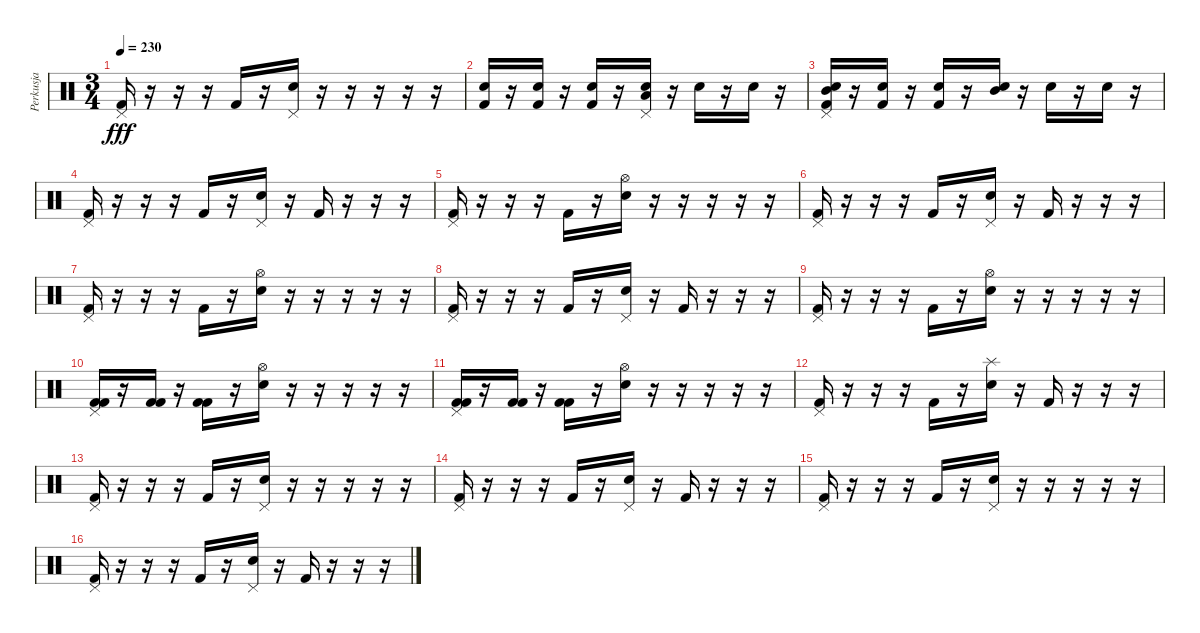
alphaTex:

\track ("Perkusja" "Perkusja") {instrument percussion}
\staff {score}
\articulation defaults
\ts (3 4)
\tempo 230
\clef neutral
\ks c
("Pedal Hi-Hat (hit)" "Kick (hit) 2").16{dy fff} r.16 r.16 r.16 "Kick (hit) 2".16 r.16 ("Snare (hit) 2" "Pedal Hi-Hat (hit)").16 r.16 r.16 r.16 r.16 r.16 |
("Snare (hit) 2" "Kick (hit) 2").16 r.16 ("Snare (hit) 2" "Kick (hit) 2").16 r.16 ("Snare (hit) 2" "Kick (hit) 2").16 r.16 ("Snare (hit) 2" "Low Tom (hit)" "Pedal Hi-Hat (hit)").16 r.16 "Snare (hit) 2".16 r.16 "Snare (hit) 2".16 r.16 |
("Mid Tom (hit)" "Snare (hit) 2" "Pedal Hi-Hat (hit)" "Kick (hit) 2").16 r.16 ("Snare (hit) 2" "Kick (hit) 2").16 r.16 ("Snare (hit) 2" "Kick (hit) 2").16 r.16 ("Mid Tom (hit)" "Snare (hit) 2").16 r.16 "Snare (hit) 2".16 r.16 "Snare (hit) 2".16 r.16 |
("Pedal Hi-Hat (hit)" "Kick (hit) 2").16 r.16 r.16 r.16 "Kick (hit) 2".16 r.16 ("Snare (hit) 2" "Pedal Hi-Hat (hit)").16 r.16 "Kick (hit) 2".16 r.16 r.16 r.16 |
("Pedal Hi-Hat (hit)" "Kick (hit) 2").16 r.16 r.16 r.16 "Kick (hit) 2".16 r.16 ("Snare (hit) 2" "Hi-Hat (open)").16 r.16 r.16 r.16 r.16 r.16 |
("Pedal Hi-Hat (hit)" "Kick (hit) 2").16 r.16 r.16 r.16 "Kick (hit) 2".16 r.16 ("Snare (hit) 2" "Pedal Hi-Hat (hit)").16 r.16 "Kick (hit) 2".16 r.16 r.16 r.16 |
("Pedal Hi-Hat (hit)" "Kick (hit) 2").16 r.16 r.16 r.16 "Kick (hit) 2".16 r.16 ("Snare (hit) 2" "Hi-Hat (open)").16 r.16 r.16 r.16 r.16 r.16 |
("Pedal Hi-Hat (hit)" "Kick (hit) 2").16 r.16 r.16 r.16 "Kick (hit) 2".16 r.16 ("Snare (hit) 2" "Pedal Hi-Hat (hit)").16 r.16 "Kick (hit) 2".16 r.16 r.16 r.16 |
("Pedal Hi-Hat (hit)" "Kick (hit) 2").16 r.16 r.16 r.16 "Kick (hit) 2".16 r.16 ("Snare (hit) 2" "Hi-Hat (open)").16 r.16 r.16 r.16 r.16 r.16 |
("Pedal Hi-Hat (hit)" "Kick (hit) 2" "Kick (hit) 2").16 r.16 ("Kick (hit) 2" "Kick (hit) 2").16 r.16 ("Kick (hit) 2" "Kick (hit) 2").16 r.16 ("Snare (hit) 2" "Hi-Hat (open)").16 r.16 r.16 r.16 r.16 r.16 |
("Pedal Hi-Hat (hit)" "Kick (hit) 2" "Kick (hit) 2").16 r.16 ("Kick (hit) 2" "Kick (hit) 2").16 r.16 ("Kick (hit) 2" "Kick (hit) 2").16 r.16 ("Snare (hit) 2" "Hi-Hat (open)").16 r.16 r.16 r.16 r.16 r.16 |
("Pedal Hi-Hat (hit)" "Kick (hit) 2").16 r.16 r.16 r.16 "Kick (hit) 2".16 r.16 ("Snare (hit) 2" "Splash (hit)").16 r.16 "Kick (hit) 2".16 r.16 r.16 r.16 |
("Pedal Hi-Hat (hit)" "Kick (hit) 2").16 r.16 r.16 r.16 "Kick (hit) 2".16 r.16 ("Snare (hit) 2" "Pedal Hi-Hat (hit)").16 r.16 r.16 r.16 r.16 r.16 |
("Pedal Hi-Hat (hit)" "Kick (hit) 2").16 r.16 r.16 r.16 "Kick (hit) 2".16 r.16 ("Snare (hit) 2" "Pedal Hi-Hat (hit)").16 r.16 "Kick (hit) 2".16 r.16 r.16 r.16 |
("Pedal Hi-Hat (hit)" "Kick (hit) 2").16 r.16 r.16 r.16 "Kick (hit) 2".16 r.16 ("Snare (hit) 2" "Pedal Hi-Hat (hit)").16 r.16 r.16 r.16 r.16 r.16 |
("Pedal Hi-Hat (hit)" "Kick (hit) 2").16 r.16 r.16 r.16 "Kick (hit) 2".16 r.16 ("Snare (hit) 2" "Pedal Hi-Hat (hit)").16 r.16 "Kick (hit) 2".16 r.16 r.16 r.16
